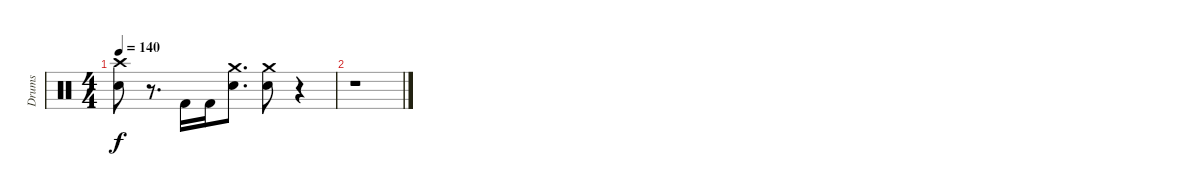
\track ("Drums" "Drums") {instrument percussion}
\staff {score}
\articulation defaults
\ts (4 4)
\tempo 140
\clef neutral
\ks c
("Crash high (hit)" "Electric Snare (hit)").8{dy f} r.8{d} "Kick (hit) 2".16 "Kick (hit) 2".16 ("Crash medium (hit)" "Electric Snare (hit)").8{d} ("Crash medium (hit)" "Electric Snare (hit)").8 r.4 |
r.1
